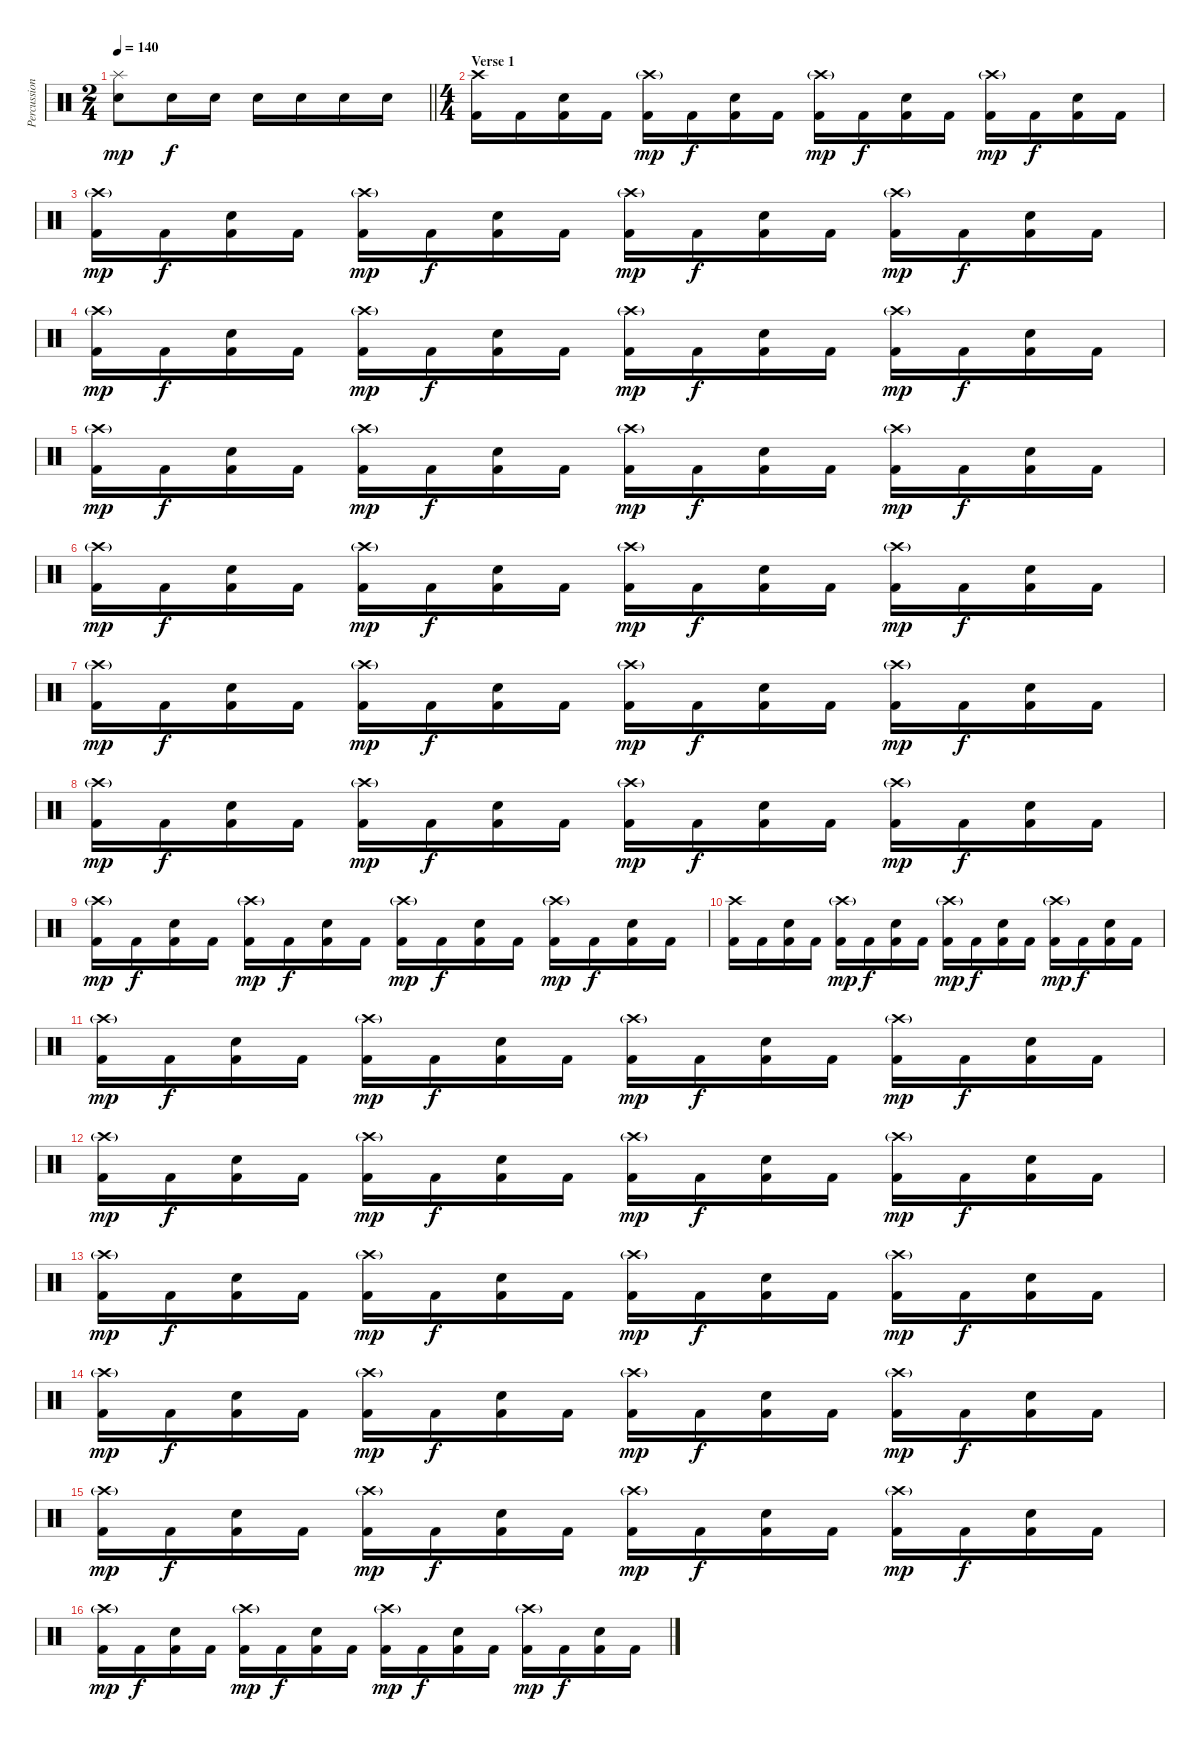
\track ("Percussion" "Percussion") {instrument percussion}
\staff {score}
\articulation defaults
\ts (2 4)
\tempo 140
\clef neutral
\barLineRight lightlight
\ks c
("Splash (hit)" "Electric Snare (hit)").8{dy mp} "Electric Snare (hit)".16{dy f} "Electric Snare (hit)".16 "Electric Snare (hit)".16 "Electric Snare (hit)".16 "Electric Snare (hit)".16 "Electric Snare (hit)".16 |
\ts (4 4)
\section ("" "Verse 1")
("Crash high (hit)" "Kick (hit) 2").16 "Kick (hit) 2".16 ("Electric Snare (hit)" "Kick (hit) 2").16 "Kick (hit) 2".16 ("Crash high (hit)"{g} "Kick (hit) 2").16{dy mp} "Kick (hit) 2".16{dy f} ("Electric Snare (hit)" "Kick (hit) 2").16 "Kick (hit) 2".16 ("Crash high (hit)"{g} "Kick (hit) 2").16{dy mp} "Kick (hit) 2".16{dy f} ("Electric Snare (hit)" "Kick (hit) 2").16 "Kick (hit) 2".16 ("Crash high (hit)"{g} "Kick (hit) 2").16{dy mp} "Kick (hit) 2".16{dy f} ("Electric Snare (hit)" "Kick (hit) 2").16 "Kick (hit) 2".16 |
("Crash high (hit)"{g} "Kick (hit) 2").16{dy mp} "Kick (hit) 2".16{dy f} ("Electric Snare (hit)" "Kick (hit) 2").16 "Kick (hit) 2".16 ("Crash high (hit)"{g} "Kick (hit) 2").16{dy mp} "Kick (hit) 2".16{dy f} ("Electric Snare (hit)" "Kick (hit) 2").16 "Kick (hit) 2".16 ("Crash high (hit)"{g} "Kick (hit) 2").16{dy mp} "Kick (hit) 2".16{dy f} ("Electric Snare (hit)" "Kick (hit) 2").16 "Kick (hit) 2".16 ("Crash high (hit)"{g} "Kick (hit) 2").16{dy mp} "Kick (hit) 2".16{dy f} ("Electric Snare (hit)" "Kick (hit) 2").16 "Kick (hit) 2".16 |
("Crash high (hit)"{g} "Kick (hit) 2").16{dy mp} "Kick (hit) 2".16{dy f} ("Electric Snare (hit)" "Kick (hit) 2").16 "Kick (hit) 2".16 ("Crash high (hit)"{g} "Kick (hit) 2").16{dy mp} "Kick (hit) 2".16{dy f} ("Electric Snare (hit)" "Kick (hit) 2").16 "Kick (hit) 2".16 ("Crash high (hit)"{g} "Kick (hit) 2").16{dy mp} "Kick (hit) 2".16{dy f} ("Electric Snare (hit)" "Kick (hit) 2").16 "Kick (hit) 2".16 ("Crash high (hit)"{g} "Kick (hit) 2").16{dy mp} "Kick (hit) 2".16{dy f} ("Electric Snare (hit)" "Kick (hit) 2").16 "Kick (hit) 2".16 |
("Crash high (hit)"{g} "Kick (hit) 2").16{dy mp} "Kick (hit) 2".16{dy f} ("Electric Snare (hit)" "Kick (hit) 2").16 "Kick (hit) 2".16 ("Crash high (hit)"{g} "Kick (hit) 2").16{dy mp} "Kick (hit) 2".16{dy f} ("Electric Snare (hit)" "Kick (hit) 2").16 "Kick (hit) 2".16 ("Crash high (hit)"{g} "Kick (hit) 2").16{dy mp} "Kick (hit) 2".16{dy f} ("Electric Snare (hit)" "Kick (hit) 2").16 "Kick (hit) 2".16 ("Crash high (hit)"{g} "Kick (hit) 2").16{dy mp} "Kick (hit) 2".16{dy f} ("Electric Snare (hit)" "Kick (hit) 2").16 "Kick (hit) 2".16 |
("Crash high (hit)"{g} "Kick (hit) 2").16{dy mp} "Kick (hit) 2".16{dy f} ("Electric Snare (hit)" "Kick (hit) 2").16 "Kick (hit) 2".16 ("Crash high (hit)"{g} "Kick (hit) 2").16{dy mp} "Kick (hit) 2".16{dy f} ("Electric Snare (hit)" "Kick (hit) 2").16 "Kick (hit) 2".16 ("Crash high (hit)"{g} "Kick (hit) 2").16{dy mp} "Kick (hit) 2".16{dy f} ("Electric Snare (hit)" "Kick (hit) 2").16 "Kick (hit) 2".16 ("Crash high (hit)"{g} "Kick (hit) 2").16{dy mp} "Kick (hit) 2".16{dy f} ("Electric Snare (hit)" "Kick (hit) 2").16 "Kick (hit) 2".16 |
("Crash high (hit)"{g} "Kick (hit) 2").16{dy mp} "Kick (hit) 2".16{dy f} ("Electric Snare (hit)" "Kick (hit) 2").16 "Kick (hit) 2".16 ("Crash high (hit)"{g} "Kick (hit) 2").16{dy mp} "Kick (hit) 2".16{dy f} ("Electric Snare (hit)" "Kick (hit) 2").16 "Kick (hit) 2".16 ("Crash high (hit)"{g} "Kick (hit) 2").16{dy mp} "Kick (hit) 2".16{dy f} ("Electric Snare (hit)" "Kick (hit) 2").16 "Kick (hit) 2".16 ("Crash high (hit)"{g} "Kick (hit) 2").16{dy mp} "Kick (hit) 2".16{dy f} ("Electric Snare (hit)" "Kick (hit) 2").16 "Kick (hit) 2".16 |
("Crash high (hit)"{g} "Kick (hit) 2").16{dy mp} "Kick (hit) 2".16{dy f} ("Electric Snare (hit)" "Kick (hit) 2").16 "Kick (hit) 2".16 ("Crash high (hit)"{g} "Kick (hit) 2").16{dy mp} "Kick (hit) 2".16{dy f} ("Electric Snare (hit)" "Kick (hit) 2").16 "Kick (hit) 2".16 ("Crash high (hit)"{g} "Kick (hit) 2").16{dy mp} "Kick (hit) 2".16{dy f} ("Electric Snare (hit)" "Kick (hit) 2").16 "Kick (hit) 2".16 ("Crash high (hit)"{g} "Kick (hit) 2").16{dy mp} "Kick (hit) 2".16{dy f} ("Electric Snare (hit)" "Kick (hit) 2").16 "Kick (hit) 2".16 |
("Crash high (hit)"{g} "Kick (hit) 2").16{dy mp} "Kick (hit) 2".16{dy f} ("Electric Snare (hit)" "Kick (hit) 2").16 "Kick (hit) 2".16 ("Crash high (hit)"{g} "Kick (hit) 2").16{dy mp} "Kick (hit) 2".16{dy f} ("Electric Snare (hit)" "Kick (hit) 2").16 "Kick (hit) 2".16 ("Crash high (hit)"{g} "Kick (hit) 2").16{dy mp} "Kick (hit) 2".16{dy f} ("Electric Snare (hit)" "Kick (hit) 2").16 "Kick (hit) 2".16 ("Crash high (hit)"{g} "Kick (hit) 2").16{dy mp} "Kick (hit) 2".16{dy f} ("Electric Snare (hit)" "Kick (hit) 2").16 "Kick (hit) 2".16 |
("Crash high (hit)" "Kick (hit) 2").16 "Kick (hit) 2".16 ("Electric Snare (hit)" "Kick (hit) 2").16 "Kick (hit) 2".16 ("Crash high (hit)"{g} "Kick (hit) 2").16{dy mp} "Kick (hit) 2".16{dy f} ("Electric Snare (hit)" "Kick (hit) 2").16 "Kick (hit) 2".16 ("Crash high (hit)"{g} "Kick (hit) 2").16{dy mp} "Kick (hit) 2".16{dy f} ("Electric Snare (hit)" "Kick (hit) 2").16 "Kick (hit) 2".16 ("Crash high (hit)"{g} "Kick (hit) 2").16{dy mp} "Kick (hit) 2".16{dy f} ("Electric Snare (hit)" "Kick (hit) 2").16 "Kick (hit) 2".16 |
("Crash high (hit)"{g} "Kick (hit) 2").16{dy mp} "Kick (hit) 2".16{dy f} ("Electric Snare (hit)" "Kick (hit) 2").16 "Kick (hit) 2".16 ("Crash high (hit)"{g} "Kick (hit) 2").16{dy mp} "Kick (hit) 2".16{dy f} ("Electric Snare (hit)" "Kick (hit) 2").16 "Kick (hit) 2".16 ("Crash high (hit)"{g} "Kick (hit) 2").16{dy mp} "Kick (hit) 2".16{dy f} ("Electric Snare (hit)" "Kick (hit) 2").16 "Kick (hit) 2".16 ("Crash high (hit)"{g} "Kick (hit) 2").16{dy mp} "Kick (hit) 2".16{dy f} ("Electric Snare (hit)" "Kick (hit) 2").16 "Kick (hit) 2".16 |
("Crash high (hit)"{g} "Kick (hit) 2").16{dy mp} "Kick (hit) 2".16{dy f} ("Electric Snare (hit)" "Kick (hit) 2").16 "Kick (hit) 2".16 ("Crash high (hit)"{g} "Kick (hit) 2").16{dy mp} "Kick (hit) 2".16{dy f} ("Electric Snare (hit)" "Kick (hit) 2").16 "Kick (hit) 2".16 ("Crash high (hit)"{g} "Kick (hit) 2").16{dy mp} "Kick (hit) 2".16{dy f} ("Electric Snare (hit)" "Kick (hit) 2").16 "Kick (hit) 2".16 ("Crash high (hit)"{g} "Kick (hit) 2").16{dy mp} "Kick (hit) 2".16{dy f} ("Electric Snare (hit)" "Kick (hit) 2").16 "Kick (hit) 2".16 |
("Crash high (hit)"{g} "Kick (hit) 2").16{dy mp} "Kick (hit) 2".16{dy f} ("Electric Snare (hit)" "Kick (hit) 2").16 "Kick (hit) 2".16 ("Crash high (hit)"{g} "Kick (hit) 2").16{dy mp} "Kick (hit) 2".16{dy f} ("Electric Snare (hit)" "Kick (hit) 2").16 "Kick (hit) 2".16 ("Crash high (hit)"{g} "Kick (hit) 2").16{dy mp} "Kick (hit) 2".16{dy f} ("Electric Snare (hit)" "Kick (hit) 2").16 "Kick (hit) 2".16 ("Crash high (hit)"{g} "Kick (hit) 2").16{dy mp} "Kick (hit) 2".16{dy f} ("Electric Snare (hit)" "Kick (hit) 2").16 "Kick (hit) 2".16 |
("Crash high (hit)"{g} "Kick (hit) 2").16{dy mp} "Kick (hit) 2".16{dy f} ("Electric Snare (hit)" "Kick (hit) 2").16 "Kick (hit) 2".16 ("Crash high (hit)"{g} "Kick (hit) 2").16{dy mp} "Kick (hit) 2".16{dy f} ("Electric Snare (hit)" "Kick (hit) 2").16 "Kick (hit) 2".16 ("Crash high (hit)"{g} "Kick (hit) 2").16{dy mp} "Kick (hit) 2".16{dy f} ("Electric Snare (hit)" "Kick (hit) 2").16 "Kick (hit) 2".16 ("Crash high (hit)"{g} "Kick (hit) 2").16{dy mp} "Kick (hit) 2".16{dy f} ("Electric Snare (hit)" "Kick (hit) 2").16 "Kick (hit) 2".16 |
("Crash high (hit)"{g} "Kick (hit) 2").16{dy mp} "Kick (hit) 2".16{dy f} ("Electric Snare (hit)" "Kick (hit) 2").16 "Kick (hit) 2".16 ("Crash high (hit)"{g} "Kick (hit) 2").16{dy mp} "Kick (hit) 2".16{dy f} ("Electric Snare (hit)" "Kick (hit) 2").16 "Kick (hit) 2".16 ("Crash high (hit)"{g} "Kick (hit) 2").16{dy mp} "Kick (hit) 2".16{dy f} ("Electric Snare (hit)" "Kick (hit) 2").16 "Kick (hit) 2".16 ("Crash high (hit)"{g} "Kick (hit) 2").16{dy mp} "Kick (hit) 2".16{dy f} ("Electric Snare (hit)" "Kick (hit) 2").16 "Kick (hit) 2".16 |
("Crash high (hit)"{g} "Kick (hit) 2").16{dy mp} "Kick (hit) 2".16{dy f} ("Electric Snare (hit)" "Kick (hit) 2").16 "Kick (hit) 2".16 ("Crash high (hit)"{g} "Kick (hit) 2").16{dy mp} "Kick (hit) 2".16{dy f} ("Electric Snare (hit)" "Kick (hit) 2").16 "Kick (hit) 2".16 ("Crash high (hit)"{g} "Kick (hit) 2").16{dy mp} "Kick (hit) 2".16{dy f} ("Electric Snare (hit)" "Kick (hit) 2").16 "Kick (hit) 2".16 ("Crash high (hit)"{g} "Kick (hit) 2").16{dy mp} "Kick (hit) 2".16{dy f} ("Electric Snare (hit)" "Kick (hit) 2").16 "Kick (hit) 2".16
